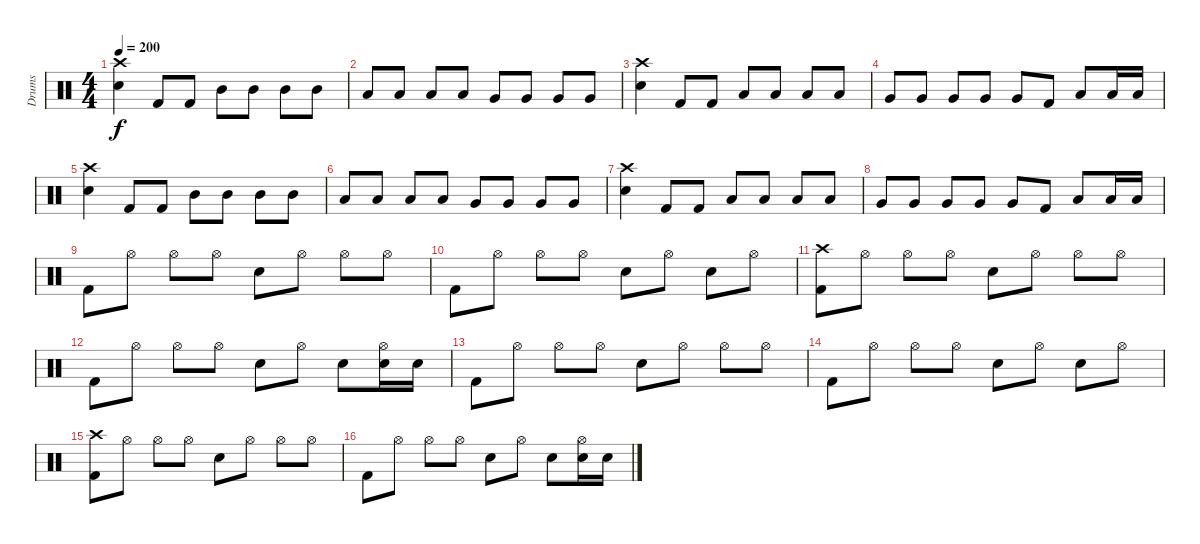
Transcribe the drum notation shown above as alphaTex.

\track ("Drums" "Drums") {instrument percussion}
\staff {score}
\articulation defaults
\ts (4 4)
\tempo 200
\clef neutral
\ks c
("Crash high (hit)" "Snare (hit) 2").4{dy f} "Kick (hit) 2".8 "Kick (hit) 2".8 "Mid Tom (hit)".8 "Mid Tom (hit)".8 "Mid Tom (hit)".8 "Mid Tom (hit)".8 |
"Low Tom (hit)".8 "Low Tom (hit)".8 "Low Tom (hit)".8 "Low Tom (hit)".8 "Very Low Tom (hit)".8 "Very Low Tom (hit)".8 "Very Low Tom (hit)".8 "Very Low Tom (hit)".8 |
("Crash high (hit)" "Snare (hit) 2").4 "Kick (hit) 2".8 "Kick (hit) 2".8 "Low Tom (hit)".8 "Low Tom (hit)".8 "Low Tom (hit)".8 "Low Tom (hit)".8 |
"Very Low Tom (hit)".8 "Very Low Tom (hit)".8 "Very Low Tom (hit)".8 "Very Low Tom (hit)".8 "Very Low Tom (hit)".8 "Kick (hit) 2".8 "Low Floor Tom (hit)".8 "Low Floor Tom (hit)".16 "Low Floor Tom (hit)".16 |
("Crash high (hit)" "Snare (hit) 2").4 "Kick (hit) 2".8 "Kick (hit) 2".8 "Mid Tom (hit)".8 "Mid Tom (hit)".8 "Mid Tom (hit)".8 "Mid Tom (hit)".8 |
"Low Tom (hit)".8 "Low Tom (hit)".8 "Low Tom (hit)".8 "Low Tom (hit)".8 "Very Low Tom (hit)".8 "Very Low Tom (hit)".8 "Very Low Tom (hit)".8 "Very Low Tom (hit)".8 |
("Crash high (hit)" "Snare (hit) 2").4 "Kick (hit) 2".8 "Kick (hit) 2".8 "Low Tom (hit)".8 "Low Tom (hit)".8 "Low Tom (hit)".8 "Low Tom (hit)".8 |
"Very Low Tom (hit)".8 "Very Low Tom (hit)".8 "Very Low Tom (hit)".8 "Very Low Tom (hit)".8 "Very Low Tom (hit)".8 "Kick (hit) 2".8 "Low Floor Tom (hit)".8 "Low Floor Tom (hit)".16 "Low Floor Tom (hit)".16 |
"Kick (hit) 2".8 "Hi-Hat (open)".8 "Hi-Hat (open)".8 "Hi-Hat (open)".8 "Snare (hit) 2".8 "Hi-Hat (open)".8 "Hi-Hat (open)".8 "Hi-Hat (open)".8 |
"Kick (hit) 2".8 "Hi-Hat (open)".8 "Hi-Hat (open)".8 "Hi-Hat (open)".8 "Snare (hit) 2".8 "Hi-Hat (open)".8 "Snare (hit) 2".8 "Hi-Hat (open)".8 |
("Crash high (hit)" "Kick (hit) 2").8 "Hi-Hat (open)".8 "Hi-Hat (open)".8 "Hi-Hat (open)".8 "Snare (hit) 2".8 "Hi-Hat (open)".8 "Hi-Hat (open)".8 "Hi-Hat (open)".8 |
"Kick (hit) 2".8 "Hi-Hat (open)".8 "Hi-Hat (open)".8 "Hi-Hat (open)".8 "Snare (hit) 2".8 "Hi-Hat (open)".8 "Snare (hit) 2".8 ("Hi-Hat (open)" "Snare (hit) 2").16 "Snare (hit) 2".16 |
"Kick (hit) 2".8{volume 10} "Hi-Hat (open)".8 "Hi-Hat (open)".8 "Hi-Hat (open)".8 "Snare (hit) 2".8 "Hi-Hat (open)".8 "Hi-Hat (open)".8 "Hi-Hat (open)".8 |
"Kick (hit) 2".8 "Hi-Hat (open)".8 "Hi-Hat (open)".8 "Hi-Hat (open)".8 "Snare (hit) 2".8 "Hi-Hat (open)".8 "Snare (hit) 2".8 "Hi-Hat (open)".8 |
("Crash high (hit)" "Kick (hit) 2").8 "Hi-Hat (open)".8 "Hi-Hat (open)".8 "Hi-Hat (open)".8 "Snare (hit) 2".8 "Hi-Hat (open)".8 "Hi-Hat (open)".8 "Hi-Hat (open)".8 |
"Kick (hit) 2".8 "Hi-Hat (open)".8 "Hi-Hat (open)".8 "Hi-Hat (open)".8 "Snare (hit) 2".8 "Hi-Hat (open)".8 "Snare (hit) 2".8 ("Hi-Hat (open)" "Snare (hit) 2").16 "Snare (hit) 2".16
